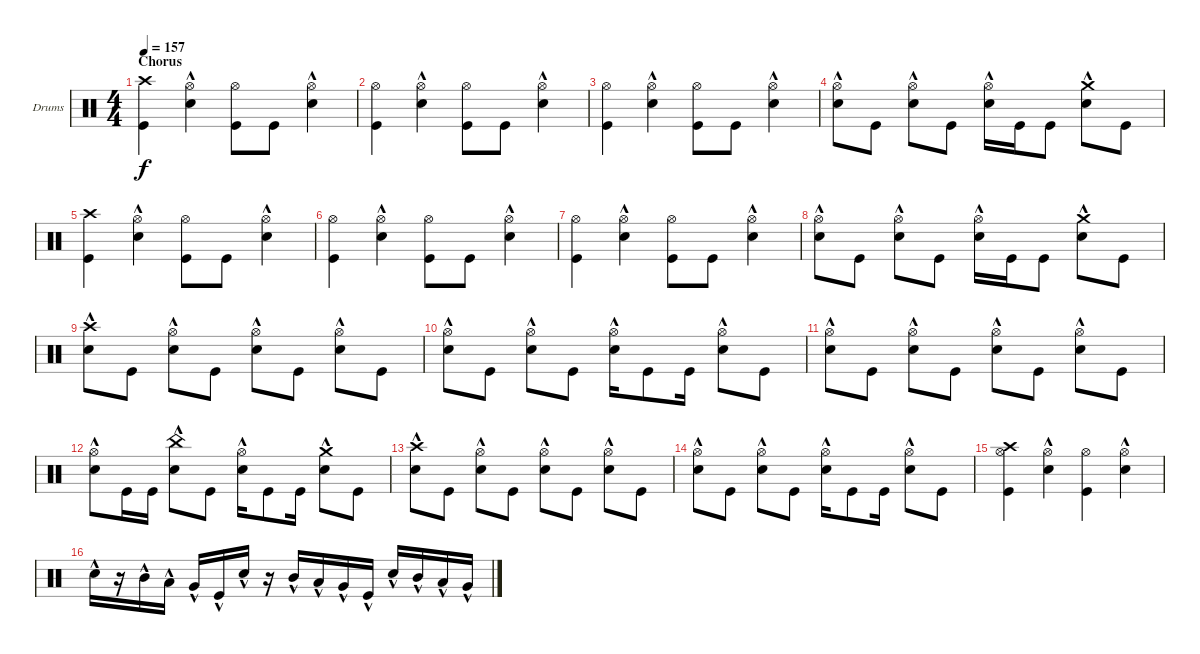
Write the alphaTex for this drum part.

\defaultSystemsLayout 4
\bracketExtendMode groupsimilarinstruments
\firstSystemTrackNameOrientation horizontal
\otherSystemsTrackNameOrientation horizontal
\track ("Drumkit - Natsu" "Drums") {instrument percussion}
\staff {score}
\articulation defaults
\ts (4 4)
\section ("" "Chorus")
\tempo 157
\clef neutral
\ks c
("Crash high (hit)" "Kick (hit)").4{dy f} ("Snare (hit) 2"{hac} "Hi-Hat (open)").4 ("Kick (hit)" "Hi-Hat (open)").8 "Kick (hit)".8 ("Snare (hit) 2"{hac} "Hi-Hat (open)").4 |
("Kick (hit)" "Hi-Hat (open)").4 ("Snare (hit) 2"{hac} "Hi-Hat (open)").4 ("Kick (hit)" "Hi-Hat (open)").8 "Kick (hit)".8 ("Snare (hit) 2"{hac} "Hi-Hat (open)").4 |
("Kick (hit)" "Hi-Hat (open)").4 ("Snare (hit) 2"{hac} "Hi-Hat (open)").4 ("Kick (hit)" "Hi-Hat (open)").8 "Kick (hit)".8 ("Snare (hit) 2"{hac} "Hi-Hat (open)").4 |
("Snare (hit) 2"{hac} "Hi-Hat (open)").8 "Kick (hit)".8 ("Snare (hit) 2"{hac} "Hi-Hat (open)").8 "Kick (hit)".8 ("Snare (hit) 2"{hac} "Hi-Hat (open)").16 "Kick (hit)".16 "Kick (hit)".8 ("Snare (hit) 2"{hac} "Crash medium (hit)"{hac}).8 "Kick (hit)".8 |
("Crash high (hit)" "Kick (hit)").4 ("Snare (hit) 2"{hac} "Hi-Hat (open)").4 ("Kick (hit)" "Hi-Hat (open)").8 "Kick (hit)".8 ("Snare (hit) 2"{hac} "Hi-Hat (open)").4 |
("Kick (hit)" "Hi-Hat (open)").4 ("Snare (hit) 2"{hac} "Hi-Hat (open)").4 ("Kick (hit)" "Hi-Hat (open)").8 "Kick (hit)".8 ("Snare (hit) 2"{hac} "Hi-Hat (open)").4 |
("Kick (hit)" "Hi-Hat (open)").4 ("Snare (hit) 2"{hac} "Hi-Hat (open)").4 ("Kick (hit)" "Hi-Hat (open)").8 "Kick (hit)".8 ("Snare (hit) 2"{hac} "Hi-Hat (open)").4 |
("Snare (hit) 2"{hac} "Hi-Hat (open)").8 "Kick (hit)".8 ("Snare (hit) 2"{hac} "Hi-Hat (open)").8 "Kick (hit)".8 ("Snare (hit) 2"{hac} "Hi-Hat (open)").16 "Kick (hit)".16 "Kick (hit)".8 ("Snare (hit) 2"{hac} "Crash medium (hit)"{hac}).8 "Kick (hit)".8 |
("Snare (hit) 2"{hac} "Crash high (hit)").8 "Kick (hit)".8 ("Snare (hit) 2"{hac} "Hi-Hat (open)").8 "Kick (hit)".8 ("Snare (hit) 2"{hac} "Hi-Hat (open)").8 "Kick (hit)".8 ("Snare (hit) 2"{hac} "Hi-Hat (open)").8 "Kick (hit)".8 |
("Snare (hit) 2"{hac} "Hi-Hat (open)").8 "Kick (hit)".8 ("Snare (hit) 2"{hac} "Hi-Hat (open)").8 "Kick (hit)".8 ("Snare (hit) 2"{hac} "Hi-Hat (open)").16 "Kick (hit)".8 "Kick (hit)".16 ("Snare (hit) 2"{hac} "Hi-Hat (open)").8 "Kick (hit)".8 |
("Snare (hit) 2"{hac} "Hi-Hat (open)").8 "Kick (hit)".8 ("Snare (hit) 2"{hac} "Hi-Hat (open)").8 "Kick (hit)".8 ("Snare (hit) 2"{hac} "Hi-Hat (open)").8 "Kick (hit)".8 ("Snare (hit) 2"{hac} "Hi-Hat (open)").8 "Kick (hit)".8 |
("Snare (hit) 2"{hac} "Hi-Hat (open)").8 "Kick (hit)".16 "Kick (hit)".16 ("Snare (hit) 2"{hac} "China (hit)"{hac}).8 "Kick (hit)".8 ("Snare (hit) 2"{hac} "Hi-Hat (open)").16 "Kick (hit)".8 "Kick (hit)".16 ("Snare (hit) 2"{hac} "Crash medium (hit)"{hac}).8 "Kick (hit)".8 |
("Snare (hit) 2"{hac} "Crash high (hit)").8 "Kick (hit)".8 ("Snare (hit) 2"{hac} "Hi-Hat (open)").8 "Kick (hit)".8 ("Snare (hit) 2"{hac} "Hi-Hat (open)").8 "Kick (hit)".8 ("Snare (hit) 2"{hac} "Hi-Hat (open)").8 "Kick (hit)".8 |
("Snare (hit) 2"{hac} "Hi-Hat (open)").8 "Kick (hit)".8 ("Snare (hit) 2"{hac} "Hi-Hat (open)").8 "Kick (hit)".8 ("Snare (hit) 2"{hac} "Hi-Hat (open)").16 "Kick (hit)".8 "Kick (hit)".16 ("Snare (hit) 2"{hac} "Hi-Hat (open)").8 "Kick (hit)".8 |
("Kick (hit)" "Hi-Hat (open)" "Crash high (hit)").4 ("Snare (hit) 2"{hac} "Hi-Hat (open)").4 ("Kick (hit)" "Hi-Hat (open)").4 ("Snare (hit) 2"{hac} "Hi-Hat (open)").4 |
"Snare (hit) 2"{hac}.16 r.16 "Mid Tom (hit)"{hac}.16 "Low Tom (hit)"{hac}.16 "Very Low Tom (hit)"{hac}.16 "Kick (hit)"{hac}.16 "Snare (hit) 2"{hac}.16 r.16 "Mid Tom (hit)"{hac}.16 "Low Tom (hit)"{hac}.16 "Very Low Tom (hit)"{hac}.16 "Kick (hit)"{hac}.16 "Snare (hit) 2"{hac}.16 "Mid Tom (hit)"{hac}.16 "Low Tom (hit)"{hac}.16 "Very Low Tom (hit)"{hac}.16
